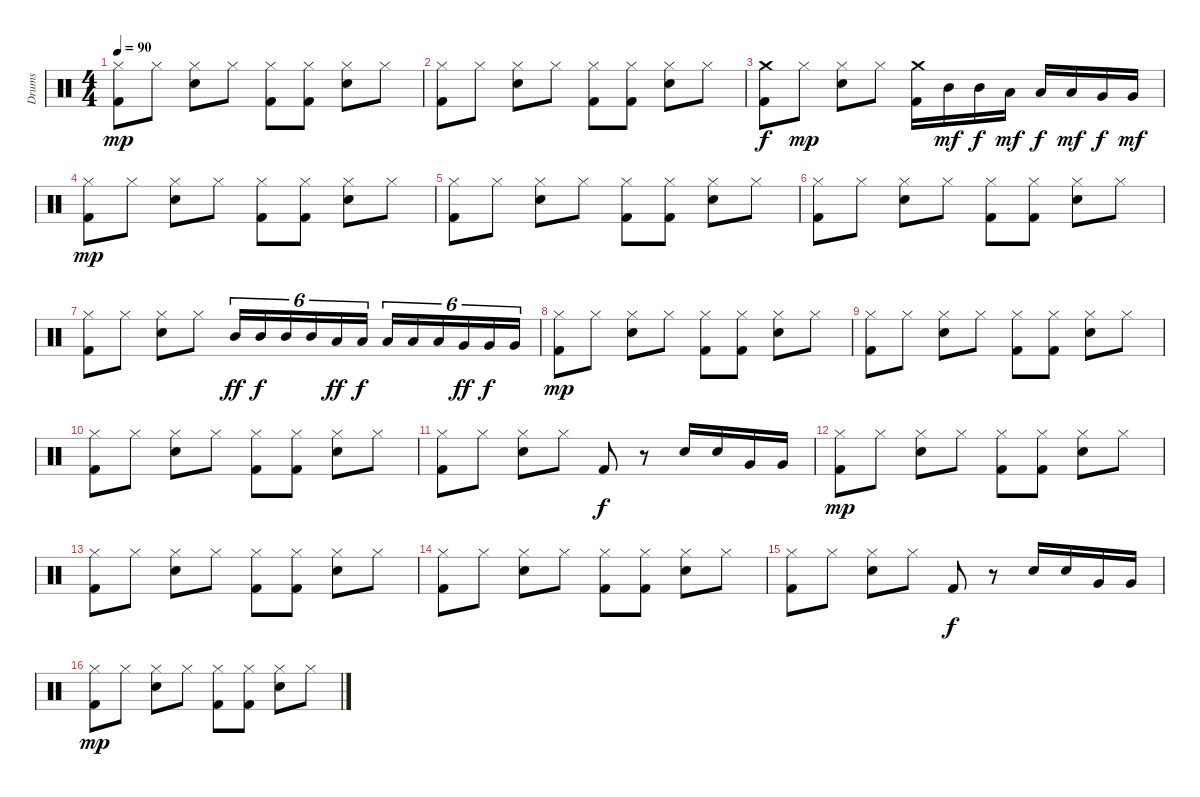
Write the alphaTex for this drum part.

\track ("Drums" "Drums") {instrument percussion}
\staff {score}
\articulation defaults
\ts (4 4)
\tempo 90
\clef neutral
\ks c
("Kick (hit) 2" "Hi-Hat (closed)").8{dy mp} "Hi-Hat (closed)".8 ("Electric Snare (hit)" "Hi-Hat (closed)").8 "Hi-Hat (closed)".8 ("Kick (hit) 2" "Hi-Hat (closed)").8 ("Kick (hit) 2" "Hi-Hat (closed)").8 ("Electric Snare (hit)" "Hi-Hat (closed)").8 "Hi-Hat (closed)".8 |
("Kick (hit) 2" "Hi-Hat (closed)").8 "Hi-Hat (closed)".8 ("Electric Snare (hit)" "Hi-Hat (closed)").8 "Hi-Hat (closed)".8 ("Kick (hit) 2" "Hi-Hat (closed)").8 ("Kick (hit) 2" "Hi-Hat (closed)").8 ("Electric Snare (hit)" "Hi-Hat (closed)").8 "Hi-Hat (closed)".8 |
("Crash medium (hit)" "Kick (hit) 2").8{dy f} "Hi-Hat (closed)".8{dy mp} ("Electric Snare (hit)" "Hi-Hat (closed)").8 "Hi-Hat (closed)".8 ("Kick (hit) 2" "Crash medium (hit)").16 "Mid Tom (hit)".16{dy mf} "Mid Tom (hit)".16{dy f} "Low Tom (hit)".16{dy mf} "Low Tom (hit)".16{dy f} "Low Tom (hit)".16{dy mf} "Very Low Tom (hit)".16{dy f} "Very Low Tom (hit)".16{dy mf} |
("Kick (hit) 2" "Hi-Hat (closed)").8{dy mp} "Hi-Hat (closed)".8 ("Electric Snare (hit)" "Hi-Hat (closed)").8 "Hi-Hat (closed)".8 ("Kick (hit) 2" "Hi-Hat (closed)").8 ("Kick (hit) 2" "Hi-Hat (closed)").8 ("Electric Snare (hit)" "Hi-Hat (closed)").8 "Hi-Hat (closed)".8 |
("Kick (hit) 2" "Hi-Hat (closed)").8 "Hi-Hat (closed)".8 ("Electric Snare (hit)" "Hi-Hat (closed)").8 "Hi-Hat (closed)".8 ("Kick (hit) 2" "Hi-Hat (closed)").8 ("Kick (hit) 2" "Hi-Hat (closed)").8 ("Electric Snare (hit)" "Hi-Hat (closed)").8 "Hi-Hat (closed)".8 |
("Kick (hit) 2" "Hi-Hat (closed)").8 "Hi-Hat (closed)".8 ("Electric Snare (hit)" "Hi-Hat (closed)").8 "Hi-Hat (closed)".8 ("Kick (hit) 2" "Hi-Hat (closed)").8 ("Kick (hit) 2" "Hi-Hat (closed)").8 ("Electric Snare (hit)" "Hi-Hat (closed)").8 "Hi-Hat (closed)".8 |
("Kick (hit) 2" "Hi-Hat (closed)").8 "Hi-Hat (closed)".8 ("Electric Snare (hit)" "Hi-Hat (closed)").8 "Hi-Hat (closed)".8 "Mid Tom (hit)".16{tu (6 4) dy ff} "Mid Tom (hit)".16{tu (6 4) dy f} "Mid Tom (hit)".16{tu (6 4)} "Mid Tom (hit)".16{tu (6 4)} "Low Tom (hit)".16{tu (6 4) dy ff} "Low Tom (hit)".16{tu (6 4) dy f} "Low Tom (hit)".16{tu (6 4)} "Low Tom (hit)".16{tu (6 4)} "Low Tom (hit)".16{tu (6 4)} "Very Low Tom (hit)".16{tu (6 4) dy ff} "Very Low Tom (hit)".16{tu (6 4) dy f} "Very Low Tom (hit)".16{tu (6 4)} |
("Kick (hit) 2" "Hi-Hat (closed)").8{dy mp} "Hi-Hat (closed)".8 ("Electric Snare (hit)" "Hi-Hat (closed)").8 "Hi-Hat (closed)".8 ("Kick (hit) 2" "Hi-Hat (closed)").8 ("Kick (hit) 2" "Hi-Hat (closed)").8 ("Electric Snare (hit)" "Hi-Hat (closed)").8 "Hi-Hat (closed)".8 |
("Kick (hit) 2" "Hi-Hat (closed)").8 "Hi-Hat (closed)".8 ("Electric Snare (hit)" "Hi-Hat (closed)").8 "Hi-Hat (closed)".8 ("Kick (hit) 2" "Hi-Hat (closed)").8 ("Kick (hit) 2" "Hi-Hat (closed)").8 ("Electric Snare (hit)" "Hi-Hat (closed)").8 "Hi-Hat (closed)".8 |
("Kick (hit) 2" "Hi-Hat (closed)").8 "Hi-Hat (closed)".8 ("Electric Snare (hit)" "Hi-Hat (closed)").8 "Hi-Hat (closed)".8 ("Kick (hit) 2" "Hi-Hat (closed)").8 ("Kick (hit) 2" "Hi-Hat (closed)").8 ("Electric Snare (hit)" "Hi-Hat (closed)").8 "Hi-Hat (closed)".8 |
("Kick (hit) 2" "Hi-Hat (closed)").8 "Hi-Hat (closed)".8 ("Electric Snare (hit)" "Hi-Hat (closed)").8 "Hi-Hat (closed)".8 "Kick (hit) 2".8{dy f} r.8 "Electric Snare (hit)".16 "Electric Snare (hit)".16 "Very Low Tom (hit)".16 "Very Low Tom (hit)".16 |
("Kick (hit) 2" "Hi-Hat (closed)").8{dy mp} "Hi-Hat (closed)".8 ("Electric Snare (hit)" "Hi-Hat (closed)").8 "Hi-Hat (closed)".8 ("Kick (hit) 2" "Hi-Hat (closed)").8 ("Kick (hit) 2" "Hi-Hat (closed)").8 ("Electric Snare (hit)" "Hi-Hat (closed)").8 "Hi-Hat (closed)".8 |
("Kick (hit) 2" "Hi-Hat (closed)").8 "Hi-Hat (closed)".8 ("Electric Snare (hit)" "Hi-Hat (closed)").8 "Hi-Hat (closed)".8 ("Kick (hit) 2" "Hi-Hat (closed)").8 ("Kick (hit) 2" "Hi-Hat (closed)").8 ("Electric Snare (hit)" "Hi-Hat (closed)").8 "Hi-Hat (closed)".8 |
("Kick (hit) 2" "Hi-Hat (closed)").8 "Hi-Hat (closed)".8 ("Electric Snare (hit)" "Hi-Hat (closed)").8 "Hi-Hat (closed)".8 ("Kick (hit) 2" "Hi-Hat (closed)").8 ("Kick (hit) 2" "Hi-Hat (closed)").8 ("Electric Snare (hit)" "Hi-Hat (closed)").8 "Hi-Hat (closed)".8 |
("Kick (hit) 2" "Hi-Hat (closed)").8 "Hi-Hat (closed)".8 ("Electric Snare (hit)" "Hi-Hat (closed)").8 "Hi-Hat (closed)".8 "Kick (hit) 2".8{dy f} r.8 "Electric Snare (hit)".16 "Electric Snare (hit)".16 "Very Low Tom (hit)".16 "Very Low Tom (hit)".16 |
("Kick (hit) 2" "Hi-Hat (closed)").8{dy mp} "Hi-Hat (closed)".8 ("Electric Snare (hit)" "Hi-Hat (closed)").8 "Hi-Hat (closed)".8 ("Kick (hit) 2" "Hi-Hat (closed)").8 ("Kick (hit) 2" "Hi-Hat (closed)").8 ("Electric Snare (hit)" "Hi-Hat (closed)").8 "Hi-Hat (closed)".8
